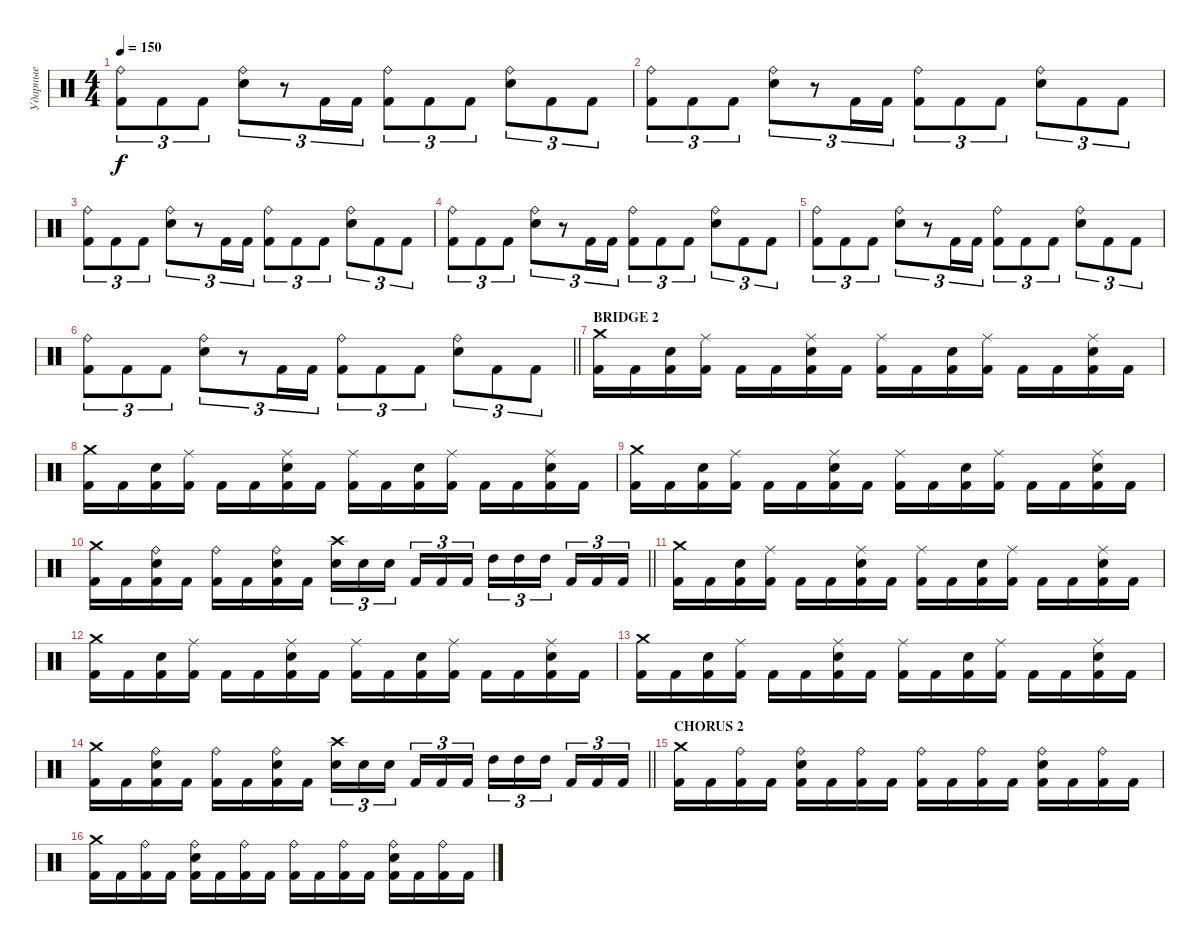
\track ("Ударные" "Ударные") {instrument percussion}
\staff {score}
\articulation defaults
\ts (4 4)
\tempo 150
\clef neutral
\ks c
("Kick (hit) 2" "Ride (bell)").8{tu (3 2) dy f} "Kick (hit) 2".8{tu (3 2)} "Kick (hit) 2".8{tu (3 2)} ("Snare (hit) 2" "Ride (bell)").8{tu (3 2)} r.8{tu (3 2)} "Kick (hit) 2".16{tu (3 2)} "Kick (hit) 2".16{tu (3 2)} ("Kick (hit) 2" "Ride (bell)").8{tu (3 2)} "Kick (hit) 2".8{tu (3 2)} "Kick (hit) 2".8{tu (3 2)} ("Snare (hit) 2" "Ride (bell)").8{tu (3 2)} "Kick (hit) 2".8{tu (3 2)} "Kick (hit) 2".8{tu (3 2)} |
("Kick (hit) 2" "Ride (bell)").8{tu (3 2)} "Kick (hit) 2".8{tu (3 2)} "Kick (hit) 2".8{tu (3 2)} ("Snare (hit) 2" "Ride (bell)").8{tu (3 2)} r.8{tu (3 2)} "Kick (hit) 2".16{tu (3 2)} "Kick (hit) 2".16{tu (3 2)} ("Kick (hit) 2" "Ride (bell)").8{tu (3 2)} "Kick (hit) 2".8{tu (3 2)} "Kick (hit) 2".8{tu (3 2)} ("Snare (hit) 2" "Ride (bell)").8{tu (3 2)} "Kick (hit) 2".8{tu (3 2)} "Kick (hit) 2".8{tu (3 2)} |
("Kick (hit) 2" "Ride (bell)").8{tu (3 2)} "Kick (hit) 2".8{tu (3 2)} "Kick (hit) 2".8{tu (3 2)} ("Snare (hit) 2" "Ride (bell)").8{tu (3 2)} r.8{tu (3 2)} "Kick (hit) 2".16{tu (3 2)} "Kick (hit) 2".16{tu (3 2)} ("Kick (hit) 2" "Ride (bell)").8{tu (3 2)} "Kick (hit) 2".8{tu (3 2)} "Kick (hit) 2".8{tu (3 2)} ("Snare (hit) 2" "Ride (bell)").8{tu (3 2)} "Kick (hit) 2".8{tu (3 2)} "Kick (hit) 2".8{tu (3 2)} |
("Kick (hit) 2" "Ride (bell)").8{tu (3 2)} "Kick (hit) 2".8{tu (3 2)} "Kick (hit) 2".8{tu (3 2)} ("Snare (hit) 2" "Ride (bell)").8{tu (3 2)} r.8{tu (3 2)} "Kick (hit) 2".16{tu (3 2)} "Kick (hit) 2".16{tu (3 2)} ("Kick (hit) 2" "Ride (bell)").8{tu (3 2)} "Kick (hit) 2".8{tu (3 2)} "Kick (hit) 2".8{tu (3 2)} ("Snare (hit) 2" "Ride (bell)").8{tu (3 2)} "Kick (hit) 2".8{tu (3 2)} "Kick (hit) 2".8{tu (3 2)} |
("Kick (hit) 2" "Ride (bell)").8{tu (3 2)} "Kick (hit) 2".8{tu (3 2)} "Kick (hit) 2".8{tu (3 2)} ("Snare (hit) 2" "Ride (bell)").8{tu (3 2)} r.8{tu (3 2)} "Kick (hit) 2".16{tu (3 2)} "Kick (hit) 2".16{tu (3 2)} ("Kick (hit) 2" "Ride (bell)").8{tu (3 2)} "Kick (hit) 2".8{tu (3 2)} "Kick (hit) 2".8{tu (3 2)} ("Snare (hit) 2" "Ride (bell)").8{tu (3 2)} "Kick (hit) 2".8{tu (3 2)} "Kick (hit) 2".8{tu (3 2)} |
\barLineRight lightlight
("Kick (hit) 2" "Ride (bell)").8{tu (3 2)} "Kick (hit) 2".8{tu (3 2)} "Kick (hit) 2".8{tu (3 2)} ("Snare (hit) 2" "Ride (bell)").8{tu (3 2)} r.8{tu (3 2)} "Kick (hit) 2".16{tu (3 2)} "Kick (hit) 2".16{tu (3 2)} ("Kick (hit) 2" "Ride (bell)").8{tu (3 2)} "Kick (hit) 2".8{tu (3 2)} "Kick (hit) 2".8{tu (3 2)} ("Snare (hit) 2" "Ride (bell)").8{tu (3 2)} "Kick (hit) 2".8{tu (3 2)} "Kick (hit) 2".8{tu (3 2)} |
\section ("" "BRIDGE 2")
("Kick (hit) 2" "Crash medium (hit)").16 "Kick (hit) 2".16 ("Kick (hit) 2" "Snare (hit) 2").16 ("Kick (hit) 2" "Ride (middle)").16 "Kick (hit) 2".16 "Kick (hit) 2".16 ("Kick (hit) 2" "Snare (hit) 2" "Ride (middle)").16 "Kick (hit) 2".16 ("Kick (hit) 2" "Ride (middle)").16 "Kick (hit) 2".16 ("Kick (hit) 2" "Snare (hit) 2").16 ("Kick (hit) 2" "Ride (middle)").16 "Kick (hit) 2".16 "Kick (hit) 2".16 ("Kick (hit) 2" "Snare (hit) 2" "Ride (middle)").16 "Kick (hit) 2".16 |
("Kick (hit) 2" "Crash medium (hit)").16 "Kick (hit) 2".16 ("Kick (hit) 2" "Snare (hit) 2").16 ("Kick (hit) 2" "Ride (middle)").16 "Kick (hit) 2".16 "Kick (hit) 2".16 ("Kick (hit) 2" "Snare (hit) 2" "Ride (middle)").16 "Kick (hit) 2".16 ("Kick (hit) 2" "Ride (middle)").16 "Kick (hit) 2".16 ("Kick (hit) 2" "Snare (hit) 2").16 ("Kick (hit) 2" "Ride (middle)").16 "Kick (hit) 2".16 "Kick (hit) 2".16 ("Kick (hit) 2" "Snare (hit) 2" "Ride (middle)").16 "Kick (hit) 2".16 |
("Kick (hit) 2" "Crash medium (hit)").16 "Kick (hit) 2".16 ("Kick (hit) 2" "Snare (hit) 2").16 ("Kick (hit) 2" "Ride (middle)").16 "Kick (hit) 2".16 "Kick (hit) 2".16 ("Kick (hit) 2" "Snare (hit) 2" "Ride (middle)").16 "Kick (hit) 2".16 ("Kick (hit) 2" "Ride (middle)").16 "Kick (hit) 2".16 ("Kick (hit) 2" "Snare (hit) 2").16 ("Kick (hit) 2" "Ride (middle)").16 "Kick (hit) 2".16 "Kick (hit) 2".16 ("Kick (hit) 2" "Snare (hit) 2" "Ride (middle)").16 "Kick (hit) 2".16 |
\barLineRight lightlight
("Kick (hit) 2" "Crash medium (hit)").16 "Kick (hit) 2".16 ("Kick (hit) 2" "Snare (hit) 2" "Ride (bell)").16 "Kick (hit) 2".16 ("Kick (hit) 2" "Ride (bell)").16 "Kick (hit) 2".16 ("Kick (hit) 2" "Snare (hit) 2" "Ride (bell)").16 "Kick (hit) 2".16 ("Snare (hit) 2" "Crash high (hit)").16{tu (3 2)} "Snare (hit) 2".16{tu (3 2)} "Snare (hit) 2".16{tu (3 2)} "Kick (hit) 2".16{tu (3 2)} "Kick (hit) 2".16{tu (3 2)} "Kick (hit) 2".16{tu (3 2)} "High Tom (hit)".16{tu (3 2)} "High Tom (hit)".16{tu (3 2)} "High Tom (hit)".16{tu (3 2)} "Kick (hit) 2".16{tu (3 2)} "Kick (hit) 2".16{tu (3 2)} "Kick (hit) 2".16{tu (3 2)} |
("Kick (hit) 2" "Crash medium (hit)").16 "Kick (hit) 2".16 ("Kick (hit) 2" "Snare (hit) 2").16 ("Kick (hit) 2" "Ride (middle)").16 "Kick (hit) 2".16 "Kick (hit) 2".16 ("Kick (hit) 2" "Snare (hit) 2" "Ride (middle)").16 "Kick (hit) 2".16 ("Kick (hit) 2" "Ride (middle)").16 "Kick (hit) 2".16 ("Kick (hit) 2" "Snare (hit) 2").16 ("Kick (hit) 2" "Ride (middle)").16 "Kick (hit) 2".16 "Kick (hit) 2".16 ("Kick (hit) 2" "Snare (hit) 2" "Ride (middle)").16 "Kick (hit) 2".16 |
("Kick (hit) 2" "Crash medium (hit)").16 "Kick (hit) 2".16 ("Kick (hit) 2" "Snare (hit) 2").16 ("Kick (hit) 2" "Ride (middle)").16 "Kick (hit) 2".16 "Kick (hit) 2".16 ("Kick (hit) 2" "Snare (hit) 2" "Ride (middle)").16 "Kick (hit) 2".16 ("Kick (hit) 2" "Ride (middle)").16 "Kick (hit) 2".16 ("Kick (hit) 2" "Snare (hit) 2").16 ("Kick (hit) 2" "Ride (middle)").16 "Kick (hit) 2".16 "Kick (hit) 2".16 ("Kick (hit) 2" "Snare (hit) 2" "Ride (middle)").16 "Kick (hit) 2".16 |
("Kick (hit) 2" "Crash medium (hit)").16 "Kick (hit) 2".16 ("Kick (hit) 2" "Snare (hit) 2").16 ("Kick (hit) 2" "Ride (middle)").16 "Kick (hit) 2".16 "Kick (hit) 2".16 ("Kick (hit) 2" "Snare (hit) 2" "Ride (middle)").16 "Kick (hit) 2".16 ("Kick (hit) 2" "Ride (middle)").16 "Kick (hit) 2".16 ("Kick (hit) 2" "Snare (hit) 2").16 ("Kick (hit) 2" "Ride (middle)").16 "Kick (hit) 2".16 "Kick (hit) 2".16 ("Kick (hit) 2" "Snare (hit) 2" "Ride (middle)").16 "Kick (hit) 2".16 |
\barLineRight lightlight
("Kick (hit) 2" "Crash medium (hit)").16 "Kick (hit) 2".16 ("Kick (hit) 2" "Snare (hit) 2" "Ride (bell)").16 "Kick (hit) 2".16 ("Kick (hit) 2" "Ride (bell)").16 "Kick (hit) 2".16 ("Kick (hit) 2" "Snare (hit) 2" "Ride (bell)").16 "Kick (hit) 2".16 ("Snare (hit) 2" "Crash high (hit)").16{tu (3 2)} "Snare (hit) 2".16{tu (3 2)} "Snare (hit) 2".16{tu (3 2)} "Kick (hit) 2".16{tu (3 2)} "Kick (hit) 2".16{tu (3 2)} "Kick (hit) 2".16{tu (3 2)} "High Tom (hit)".16{tu (3 2)} "High Tom (hit)".16{tu (3 2)} "High Tom (hit)".16{tu (3 2)} "Kick (hit) 2".16{tu (3 2)} "Kick (hit) 2".16{tu (3 2)} "Kick (hit) 2".16{tu (3 2)} |
\section ("" "CHORUS 2")
("Kick (hit) 2" "Crash medium (hit)").16 "Kick (hit) 2".16 ("Kick (hit) 2" "Ride (bell)").16 "Kick (hit) 2".16 ("Kick (hit) 2" "Snare (hit) 2" "Ride (bell)").16 "Kick (hit) 2".16 ("Kick (hit) 2" "Ride (bell)").16 "Kick (hit) 2".16 ("Kick (hit) 2" "Ride (bell)").16 "Kick (hit) 2".16 ("Kick (hit) 2" "Ride (bell)").16 "Kick (hit) 2".16 ("Kick (hit) 2" "Snare (hit) 2" "Ride (bell)").16 "Kick (hit) 2".16 ("Kick (hit) 2" "Ride (bell)").16 "Kick (hit) 2".16 |
("Kick (hit) 2" "Crash medium (hit)").16 "Kick (hit) 2".16 ("Kick (hit) 2" "Ride (bell)").16 "Kick (hit) 2".16 ("Kick (hit) 2" "Snare (hit) 2" "Ride (bell)").16 "Kick (hit) 2".16 ("Kick (hit) 2" "Ride (bell)").16 "Kick (hit) 2".16 ("Kick (hit) 2" "Ride (bell)").16 "Kick (hit) 2".16 ("Kick (hit) 2" "Ride (bell)").16 "Kick (hit) 2".16 ("Kick (hit) 2" "Snare (hit) 2" "Ride (bell)").16 "Kick (hit) 2".16 ("Kick (hit) 2" "Ride (bell)").16 "Kick (hit) 2".16
